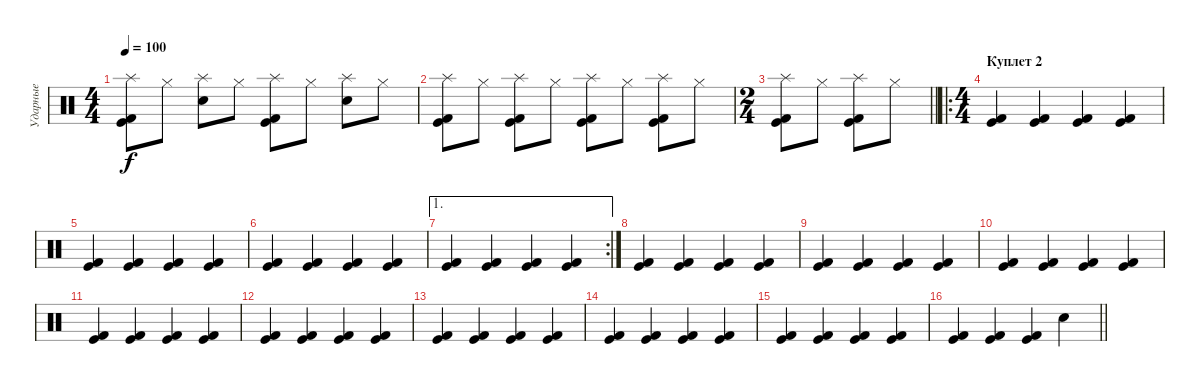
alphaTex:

\track ("Ударные" "Ударные") {instrument percussion}
\staff {score}
\articulation defaults
\ts (4 4)
\tempo 100
\clef neutral
\ks c
("Splash (hit)" "Kick (hit) 2" "Kick (hit)").8{dy f} "Hi-Hat (closed)".8 ("Splash (hit)" "Snare (hit) 2").8 "Hi-Hat (closed)".8 ("Splash (hit)" "Kick (hit) 2" "Kick (hit)").8 "Hi-Hat (closed)".8 ("Splash (hit)" "Snare (hit) 2").8 "Hi-Hat (closed)".8 |
("Splash (hit)" "Kick (hit) 2" "Kick (hit)").8 "Hi-Hat (closed)".8 ("Splash (hit)" "Kick (hit) 2" "Kick (hit)").8 "Hi-Hat (closed)".8 ("Splash (hit)" "Kick (hit) 2" "Kick (hit)").8 "Hi-Hat (closed)".8 ("Splash (hit)" "Kick (hit) 2" "Kick (hit)").8 "Hi-Hat (closed)".8 |
\ts (2 4)
\barLineRight lightlight
("Splash (hit)" "Kick (hit) 2" "Kick (hit)").8 "Hi-Hat (closed)".8 ("Splash (hit)" "Kick (hit) 2" "Kick (hit)").8 "Hi-Hat (closed)".8 |
\ro
\ts (4 4)
\section ("" "Куплет 2")
("Kick (hit)" "Kick (hit) 2").4 ("Kick (hit)" "Kick (hit) 2").4 ("Kick (hit)" "Kick (hit) 2").4 ("Kick (hit)" "Kick (hit) 2").4 |
("Kick (hit)" "Kick (hit) 2").4 ("Kick (hit)" "Kick (hit) 2").4 ("Kick (hit)" "Kick (hit) 2").4 ("Kick (hit)" "Kick (hit) 2").4 |
("Kick (hit)" "Kick (hit) 2").4 ("Kick (hit)" "Kick (hit) 2").4 ("Kick (hit)" "Kick (hit) 2").4 ("Kick (hit)" "Kick (hit) 2").4 |
\ae 1
\rc 2
("Kick (hit)" "Kick (hit) 2").4 ("Kick (hit)" "Kick (hit) 2").4 ("Kick (hit)" "Kick (hit) 2").4 ("Kick (hit)" "Kick (hit) 2").4 |
("Kick (hit)" "Kick (hit) 2").4 ("Kick (hit)" "Kick (hit) 2").4 ("Kick (hit)" "Kick (hit) 2").4 ("Kick (hit)" "Kick (hit) 2").4 |
("Kick (hit)" "Kick (hit) 2").4 ("Kick (hit)" "Kick (hit) 2").4 ("Kick (hit)" "Kick (hit) 2").4 ("Kick (hit)" "Kick (hit) 2").4 |
("Kick (hit)" "Kick (hit) 2").4 ("Kick (hit)" "Kick (hit) 2").4 ("Kick (hit)" "Kick (hit) 2").4 ("Kick (hit)" "Kick (hit) 2").4 |
("Kick (hit)" "Kick (hit) 2").4 ("Kick (hit)" "Kick (hit) 2").4 ("Kick (hit)" "Kick (hit) 2").4 ("Kick (hit)" "Kick (hit) 2").4 |
("Kick (hit)" "Kick (hit) 2").4 ("Kick (hit)" "Kick (hit) 2").4 ("Kick (hit)" "Kick (hit) 2").4 ("Kick (hit)" "Kick (hit) 2").4 |
("Kick (hit)" "Kick (hit) 2").4 ("Kick (hit)" "Kick (hit) 2").4 ("Kick (hit)" "Kick (hit) 2").4 ("Kick (hit)" "Kick (hit) 2").4 |
("Kick (hit)" "Kick (hit) 2").4 ("Kick (hit)" "Kick (hit) 2").4 ("Kick (hit)" "Kick (hit) 2").4 ("Kick (hit)" "Kick (hit) 2").4 |
("Kick (hit)" "Kick (hit) 2").4 ("Kick (hit)" "Kick (hit) 2").4 ("Kick (hit)" "Kick (hit) 2").4 ("Kick (hit)" "Kick (hit) 2").4 |
\barLineRight lightlight
("Kick (hit) 2" "Kick (hit)").4 ("Kick (hit) 2" "Kick (hit)").4 ("Kick (hit) 2" "Kick (hit)").4 "Snare (hit) 2".4
